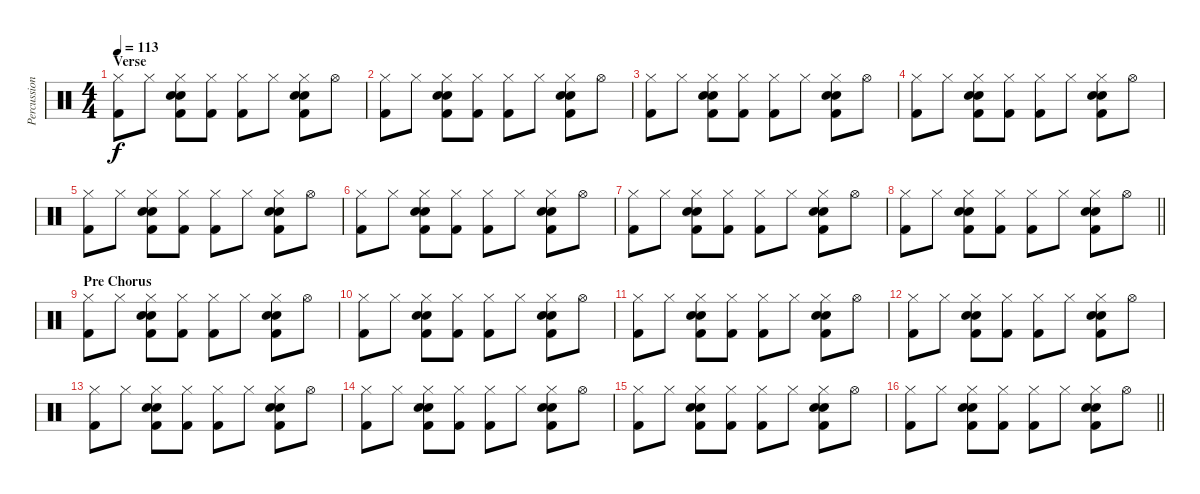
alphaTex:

\track ("Percussion" "Percussion") {instrument percussion}
\staff {score}
\articulation defaults
\ts (4 4)
\section ("" "Verse")
\tempo 113
\clef neutral
\ks c
("Hi-Hat (closed)" "Kick (hit) 2").8{dy f} "Hi-Hat (closed)".8 ("Hand Clap (hit)" "Hi-Hat (closed)" "Electric Snare (hit)" "Kick (hit) 2").8 ("Hi-Hat (closed)" "Kick (hit) 2").8 ("Hi-Hat (closed)" "Kick (hit) 2").8 "Hi-Hat (closed)".8 ("Hand Clap (hit)" "Hi-Hat (closed)" "Electric Snare (hit)" "Kick (hit) 2").8 "Hi-Hat (open)".8 |
("Hi-Hat (closed)" "Kick (hit) 2").8 "Hi-Hat (closed)".8 ("Hand Clap (hit)" "Hi-Hat (closed)" "Electric Snare (hit)" "Kick (hit) 2").8 ("Hi-Hat (closed)" "Kick (hit) 2").8 ("Hi-Hat (closed)" "Kick (hit) 2").8 "Hi-Hat (closed)".8 ("Hand Clap (hit)" "Hi-Hat (closed)" "Electric Snare (hit)" "Kick (hit) 2").8 "Hi-Hat (open)".8 |
("Hi-Hat (closed)" "Kick (hit) 2").8 "Hi-Hat (closed)".8 ("Hand Clap (hit)" "Hi-Hat (closed)" "Electric Snare (hit)" "Kick (hit) 2").8 ("Hi-Hat (closed)" "Kick (hit) 2").8 ("Hi-Hat (closed)" "Kick (hit) 2").8 "Hi-Hat (closed)".8 ("Hand Clap (hit)" "Hi-Hat (closed)" "Electric Snare (hit)" "Kick (hit) 2").8 "Hi-Hat (open)".8 |
("Hi-Hat (closed)" "Kick (hit) 2").8 "Hi-Hat (closed)".8 ("Hand Clap (hit)" "Hi-Hat (closed)" "Electric Snare (hit)" "Kick (hit) 2").8 ("Hi-Hat (closed)" "Kick (hit) 2").8 ("Hi-Hat (closed)" "Kick (hit) 2").8 "Hi-Hat (closed)".8 ("Hand Clap (hit)" "Hi-Hat (closed)" "Electric Snare (hit)" "Kick (hit) 2").8 "Hi-Hat (open)".8 |
("Hi-Hat (closed)" "Kick (hit) 2").8 "Hi-Hat (closed)".8 ("Hand Clap (hit)" "Hi-Hat (closed)" "Electric Snare (hit)" "Kick (hit) 2").8 ("Hi-Hat (closed)" "Kick (hit) 2").8 ("Hi-Hat (closed)" "Kick (hit) 2").8 "Hi-Hat (closed)".8 ("Hand Clap (hit)" "Hi-Hat (closed)" "Electric Snare (hit)" "Kick (hit) 2").8 "Hi-Hat (open)".8 |
("Hi-Hat (closed)" "Kick (hit) 2").8 "Hi-Hat (closed)".8 ("Hand Clap (hit)" "Hi-Hat (closed)" "Electric Snare (hit)" "Kick (hit) 2").8 ("Hi-Hat (closed)" "Kick (hit) 2").8 ("Hi-Hat (closed)" "Kick (hit) 2").8 "Hi-Hat (closed)".8 ("Hand Clap (hit)" "Hi-Hat (closed)" "Electric Snare (hit)" "Kick (hit) 2").8 "Hi-Hat (open)".8 |
("Hi-Hat (closed)" "Kick (hit) 2").8 "Hi-Hat (closed)".8 ("Hand Clap (hit)" "Hi-Hat (closed)" "Electric Snare (hit)" "Kick (hit) 2").8 ("Hi-Hat (closed)" "Kick (hit) 2").8 ("Hi-Hat (closed)" "Kick (hit) 2").8 "Hi-Hat (closed)".8 ("Hand Clap (hit)" "Hi-Hat (closed)" "Electric Snare (hit)" "Kick (hit) 2").8 "Hi-Hat (open)".8 |
\barLineRight lightlight
("Hi-Hat (closed)" "Kick (hit) 2").8 "Hi-Hat (closed)".8 ("Hand Clap (hit)" "Hi-Hat (closed)" "Electric Snare (hit)" "Kick (hit) 2").8 ("Hi-Hat (closed)" "Kick (hit) 2").8 ("Hi-Hat (closed)" "Kick (hit) 2").8 "Hi-Hat (closed)".8 ("Hand Clap (hit)" "Hi-Hat (closed)" "Electric Snare (hit)" "Kick (hit) 2").8 "Hi-Hat (open)".8 |
\section ("" "Pre Chorus")
("Hi-Hat (closed)" "Kick (hit) 2").8 "Hi-Hat (closed)".8 ("Hand Clap (hit)" "Hi-Hat (closed)" "Electric Snare (hit)" "Kick (hit) 2").8 ("Hi-Hat (closed)" "Kick (hit) 2").8 ("Hi-Hat (closed)" "Kick (hit) 2").8 "Hi-Hat (closed)".8 ("Hand Clap (hit)" "Hi-Hat (closed)" "Electric Snare (hit)" "Kick (hit) 2").8 "Hi-Hat (open)".8 |
("Hi-Hat (closed)" "Kick (hit) 2").8 "Hi-Hat (closed)".8 ("Hand Clap (hit)" "Hi-Hat (closed)" "Electric Snare (hit)" "Kick (hit) 2").8 ("Hi-Hat (closed)" "Kick (hit) 2").8 ("Hi-Hat (closed)" "Kick (hit) 2").8 "Hi-Hat (closed)".8 ("Hand Clap (hit)" "Hi-Hat (closed)" "Electric Snare (hit)" "Kick (hit) 2").8 "Hi-Hat (open)".8 |
("Hi-Hat (closed)" "Kick (hit) 2").8 "Hi-Hat (closed)".8 ("Hand Clap (hit)" "Hi-Hat (closed)" "Electric Snare (hit)" "Kick (hit) 2").8 ("Hi-Hat (closed)" "Kick (hit) 2").8 ("Hi-Hat (closed)" "Kick (hit) 2").8 "Hi-Hat (closed)".8 ("Hand Clap (hit)" "Hi-Hat (closed)" "Electric Snare (hit)" "Kick (hit) 2").8 "Hi-Hat (open)".8 |
("Hi-Hat (closed)" "Kick (hit) 2").8 "Hi-Hat (closed)".8 ("Hand Clap (hit)" "Hi-Hat (closed)" "Electric Snare (hit)" "Kick (hit) 2").8 ("Hi-Hat (closed)" "Kick (hit) 2").8 ("Hi-Hat (closed)" "Kick (hit) 2").8 "Hi-Hat (closed)".8 ("Hand Clap (hit)" "Hi-Hat (closed)" "Electric Snare (hit)" "Kick (hit) 2").8 "Hi-Hat (open)".8 |
("Hi-Hat (closed)" "Kick (hit) 2").8 "Hi-Hat (closed)".8 ("Hand Clap (hit)" "Hi-Hat (closed)" "Electric Snare (hit)" "Kick (hit) 2").8 ("Hi-Hat (closed)" "Kick (hit) 2").8 ("Hi-Hat (closed)" "Kick (hit) 2").8 "Hi-Hat (closed)".8 ("Hand Clap (hit)" "Hi-Hat (closed)" "Electric Snare (hit)" "Kick (hit) 2").8 "Hi-Hat (open)".8 |
("Hi-Hat (closed)" "Kick (hit) 2").8 "Hi-Hat (closed)".8 ("Hand Clap (hit)" "Hi-Hat (closed)" "Electric Snare (hit)" "Kick (hit) 2").8 ("Hi-Hat (closed)" "Kick (hit) 2").8 ("Hi-Hat (closed)" "Kick (hit) 2").8 "Hi-Hat (closed)".8 ("Hand Clap (hit)" "Hi-Hat (closed)" "Electric Snare (hit)" "Kick (hit) 2").8 "Hi-Hat (open)".8 |
("Hi-Hat (closed)" "Kick (hit) 2").8 "Hi-Hat (closed)".8 ("Hand Clap (hit)" "Hi-Hat (closed)" "Electric Snare (hit)" "Kick (hit) 2").8 ("Hi-Hat (closed)" "Kick (hit) 2").8 ("Hi-Hat (closed)" "Kick (hit) 2").8 "Hi-Hat (closed)".8 ("Hand Clap (hit)" "Hi-Hat (closed)" "Electric Snare (hit)" "Kick (hit) 2").8 "Hi-Hat (open)".8 |
\barLineRight lightlight
("Hi-Hat (closed)" "Kick (hit) 2").8 "Hi-Hat (closed)".8 ("Hand Clap (hit)" "Hi-Hat (closed)" "Electric Snare (hit)" "Kick (hit) 2").8 ("Hi-Hat (closed)" "Kick (hit) 2").8 ("Hi-Hat (closed)" "Kick (hit) 2").8 "Hi-Hat (closed)".8 ("Hand Clap (hit)" "Hi-Hat (closed)" "Electric Snare (hit)" "Kick (hit) 2").8 "Hi-Hat (open)".8
